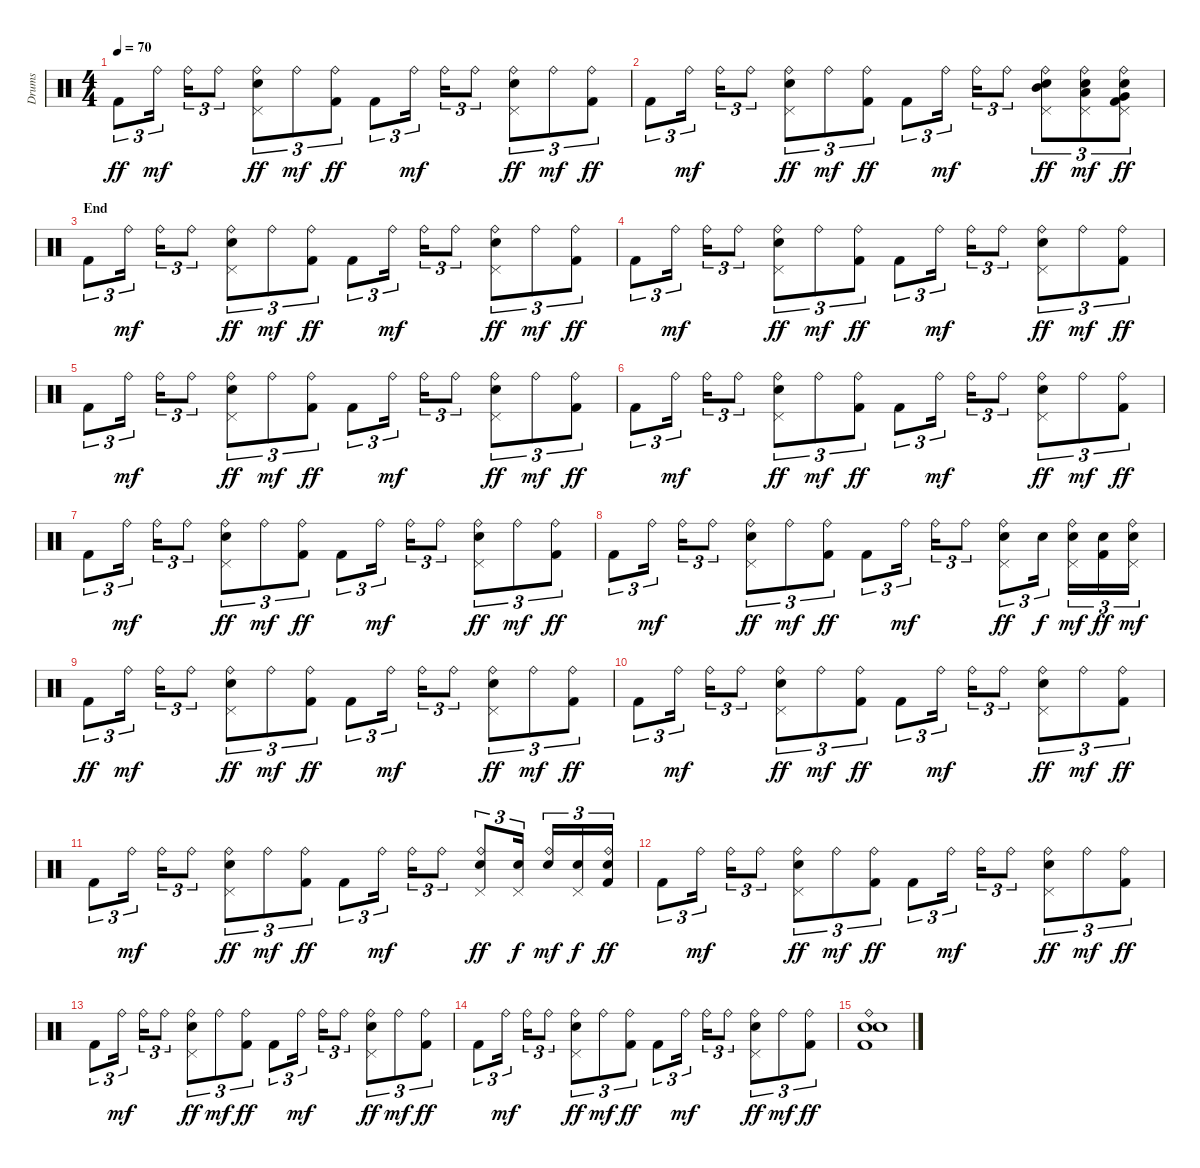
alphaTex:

\track ("Drums" "Drums") {instrument percussion}
\staff {score}
\articulation defaults
\ts (4 4)
\tempo 70
\clef neutral
\ks c "Kick (hit) 2".8{tu (3 2) dy ff} "Ride (bell)".16{tu (3 2) dy mf} "Ride (bell)".16{tu (3 2)} "Ride (bell)".8{tu (3 2)}
("Ride (bell)" "Pedal Hi-Hat (hit)" "Electric Snare (hit)").8{tu (3 2) dy ff} "Ride (bell)".8{tu (3 2) dy mf} ("Ride (bell)" "Kick (hit) 2").8{tu (3 2) dy ff} "Kick (hit) 2".8{tu (3 2)} "Ride (bell)".16{tu (3 2) dy mf} "Ride (bell)".16{tu (3 2)} "Ride (bell)".8{tu (3 2)} ("Ride (bell)" "Pedal Hi-Hat (hit)" "Electric Snare (hit)").8{tu (3 2) dy ff} "Ride (bell)".8{tu (3 2) dy mf} ("Ride (bell)" "Kick (hit) 2").8{tu (3 2) dy ff} |
"Kick (hit) 2".8{tu (3 2)} "Ride (bell)".16{tu (3 2) dy mf} "Ride (bell)".16{tu (3 2)} "Ride (bell)".8{tu (3 2)} ("Ride (bell)" "Pedal Hi-Hat (hit)" "Electric Snare (hit)").8{tu (3 2) dy ff} "Ride (bell)".8{tu (3 2) dy mf} ("Ride (bell)" "Kick (hit) 2").8{tu (3 2) dy ff} "Kick (hit) 2".8{tu (3 2)} "Ride (bell)".16{tu (3 2) dy mf} "Ride (bell)".16{tu (3 2)} "Ride (bell)".8{tu (3 2)} ("Ride (bell)" "Pedal Hi-Hat (hit)" "Mid Tom (hit)" "Electric Snare (hit)").8{tu (3 2) dy ff} ("Ride (bell)" "Pedal Hi-Hat (hit)" "Low Tom (hit)" "Electric Snare (hit)").8{tu (3 2) dy mf} ("Ride (bell)" "Pedal Hi-Hat (hit)" "Very Low Tom (hit)" "Electric Snare (hit)" "Kick (hit) 2").8{tu (3 2) dy ff} |
\section ("" "End")
"Kick (hit) 2".8{tu (3 2)} "Ride (bell)".16{tu (3 2) dy mf} "Ride (bell)".16{tu (3 2)} "Ride (bell)".8{tu (3 2)} ("Ride (bell)" "Pedal Hi-Hat (hit)" "Electric Snare (hit)").8{tu (3 2) dy ff} "Ride (bell)".8{tu (3 2) dy mf} ("Ride (bell)" "Kick (hit) 2").8{tu (3 2) dy ff} "Kick (hit) 2".8{tu (3 2)} "Ride (bell)".16{tu (3 2) dy mf} "Ride (bell)".16{tu (3 2)} "Ride (bell)".8{tu (3 2)} ("Ride (bell)" "Pedal Hi-Hat (hit)" "Electric Snare (hit)").8{tu (3 2) dy ff} "Ride (bell)".8{tu (3 2) dy mf} ("Ride (bell)" "Kick (hit) 2").8{tu (3 2) dy ff} |
"Kick (hit) 2".8{tu (3 2)} "Ride (bell)".16{tu (3 2) dy mf} "Ride (bell)".16{tu (3 2)} "Ride (bell)".8{tu (3 2)} ("Ride (bell)" "Pedal Hi-Hat (hit)" "Electric Snare (hit)").8{tu (3 2) dy ff} "Ride (bell)".8{tu (3 2) dy mf} ("Ride (bell)" "Kick (hit) 2").8{tu (3 2) dy ff} "Kick (hit) 2".8{tu (3 2)} "Ride (bell)".16{tu (3 2) dy mf} "Ride (bell)".16{tu (3 2)} "Ride (bell)".8{tu (3 2)} ("Ride (bell)" "Pedal Hi-Hat (hit)" "Electric Snare (hit)").8{tu (3 2) dy ff} "Ride (bell)".8{tu (3 2) dy mf} ("Ride (bell)" "Kick (hit) 2").8{tu (3 2) dy ff} |
"Kick (hit) 2".8{tu (3 2)} "Ride (bell)".16{tu (3 2) dy mf} "Ride (bell)".16{tu (3 2)} "Ride (bell)".8{tu (3 2)} ("Ride (bell)" "Pedal Hi-Hat (hit)" "Electric Snare (hit)").8{tu (3 2) dy ff} "Ride (bell)".8{tu (3 2) dy mf} ("Ride (bell)" "Kick (hit) 2").8{tu (3 2) dy ff} "Kick (hit) 2".8{tu (3 2)} "Ride (bell)".16{tu (3 2) dy mf} "Ride (bell)".16{tu (3 2)} "Ride (bell)".8{tu (3 2)} ("Ride (bell)" "Pedal Hi-Hat (hit)" "Electric Snare (hit)").8{tu (3 2) dy ff} "Ride (bell)".8{tu (3 2) dy mf} ("Ride (bell)" "Kick (hit) 2").8{tu (3 2) dy ff} |
"Kick (hit) 2".8{tu (3 2)} "Ride (bell)".16{tu (3 2) dy mf} "Ride (bell)".16{tu (3 2)} "Ride (bell)".8{tu (3 2)} ("Ride (bell)" "Pedal Hi-Hat (hit)" "Electric Snare (hit)").8{tu (3 2) dy ff} "Ride (bell)".8{tu (3 2) dy mf} ("Ride (bell)" "Kick (hit) 2").8{tu (3 2) dy ff} "Kick (hit) 2".8{tu (3 2)} "Ride (bell)".16{tu (3 2) dy mf} "Ride (bell)".16{tu (3 2)} "Ride (bell)".8{tu (3 2)} ("Ride (bell)" "Pedal Hi-Hat (hit)" "Electric Snare (hit)").8{tu (3 2) dy ff} "Ride (bell)".8{tu (3 2) dy mf} ("Ride (bell)" "Kick (hit) 2").8{tu (3 2) dy ff} |
"Kick (hit) 2".8{tu (3 2)} "Ride (bell)".16{tu (3 2) dy mf} "Ride (bell)".16{tu (3 2)} "Ride (bell)".8{tu (3 2)} ("Ride (bell)" "Pedal Hi-Hat (hit)" "Electric Snare (hit)").8{tu (3 2) dy ff} "Ride (bell)".8{tu (3 2) dy mf} ("Ride (bell)" "Kick (hit) 2").8{tu (3 2) dy ff} "Kick (hit) 2".8{tu (3 2)} "Ride (bell)".16{tu (3 2) dy mf} "Ride (bell)".16{tu (3 2)} "Ride (bell)".8{tu (3 2)} ("Ride (bell)" "Pedal Hi-Hat (hit)" "Electric Snare (hit)").8{tu (3 2) dy ff} "Ride (bell)".8{tu (3 2) dy mf} ("Ride (bell)" "Kick (hit) 2").8{tu (3 2) dy ff} |
"Kick (hit) 2".8{tu (3 2)} "Ride (bell)".16{tu (3 2) dy mf} "Ride (bell)".16{tu (3 2)} "Ride (bell)".8{tu (3 2)} ("Ride (bell)" "Pedal Hi-Hat (hit)" "Electric Snare (hit)").8{tu (3 2) dy ff} "Ride (bell)".8{tu (3 2) dy mf} ("Ride (bell)" "Kick (hit) 2").8{tu (3 2) dy ff} "Kick (hit) 2".8{tu (3 2)} "Ride (bell)".16{tu (3 2) dy mf} "Ride (bell)".16{tu (3 2)} "Ride (bell)".8{tu (3 2)} ("Ride (bell)" "Pedal Hi-Hat (hit)" "Electric Snare (hit)").8{tu (3 2) dy ff} "Electric Snare (hit)".16{tu (3 2) dy f} ("Ride (bell)" "Pedal Hi-Hat (hit)" "Electric Snare (hit)").16{tu (3 2) dy mf} ("Electric Snare (hit)" "Kick (hit) 2").16{tu (3 2) dy ff} ("Ride (bell)" "Pedal Hi-Hat (hit)" "Electric Snare (hit)").16{tu (3 2) dy mf} |
"Kick (hit) 2".8{tu (3 2) dy ff} "Ride (bell)".16{tu (3 2) dy mf} "Ride (bell)".16{tu (3 2)} "Ride (bell)".8{tu (3 2)} ("Ride (bell)" "Pedal Hi-Hat (hit)" "Electric Snare (hit)").8{tu (3 2) dy ff} "Ride (bell)".8{tu (3 2) dy mf} ("Ride (bell)" "Kick (hit) 2").8{tu (3 2) dy ff} "Kick (hit) 2".8{tu (3 2)} "Ride (bell)".16{tu (3 2) dy mf} "Ride (bell)".16{tu (3 2)} "Ride (bell)".8{tu (3 2)} ("Ride (bell)" "Pedal Hi-Hat (hit)" "Electric Snare (hit)").8{tu (3 2) dy ff} "Ride (bell)".8{tu (3 2) dy mf} ("Ride (bell)" "Kick (hit) 2").8{tu (3 2) dy ff} |
"Kick (hit) 2".8{tu (3 2)} "Ride (bell)".16{tu (3 2) dy mf} "Ride (bell)".16{tu (3 2)} "Ride (bell)".8{tu (3 2)} ("Ride (bell)" "Pedal Hi-Hat (hit)" "Electric Snare (hit)").8{tu (3 2) dy ff} "Ride (bell)".8{tu (3 2) dy mf} ("Ride (bell)" "Kick (hit) 2").8{tu (3 2) dy ff} "Kick (hit) 2".8{tu (3 2)} "Ride (bell)".16{tu (3 2) dy mf} "Ride (bell)".16{tu (3 2)} "Ride (bell)".8{tu (3 2)} ("Ride (bell)" "Pedal Hi-Hat (hit)" "Electric Snare (hit)").8{tu (3 2) dy ff} "Ride (bell)".8{tu (3 2) dy mf} ("Ride (bell)" "Kick (hit) 2").8{tu (3 2) dy ff} |
"Kick (hit) 2".8{tu (3 2)} "Ride (bell)".16{tu (3 2) dy mf} "Ride (bell)".16{tu (3 2)} "Ride (bell)".8{tu (3 2)} ("Ride (bell)" "Pedal Hi-Hat (hit)" "Electric Snare (hit)").8{tu (3 2) dy ff} "Ride (bell)".8{tu (3 2) dy mf} ("Ride (bell)" "Kick (hit) 2").8{tu (3 2) dy ff} "Kick (hit) 2".8{tu (3 2)} "Ride (bell)".16{tu (3 2) dy mf} "Ride (bell)".16{tu (3 2)} "Ride (bell)".8{tu (3 2)} ("Ride (bell)" "Pedal Hi-Hat (hit)" "Electric Snare (hit)").8{tu (3 2) dy ff} ("Pedal Hi-Hat (hit)" "Electric Snare (hit)").16{tu (3 2) dy f} ("Ride (bell)" "Electric Snare (hit)").16{tu (3 2) dy mf} ("Pedal Hi-Hat (hit)" "Electric Snare (hit)").16{tu (3 2) dy f} ("Ride (bell)" "Electric Snare (hit)" "Kick (hit) 2").16{tu (3 2) dy ff} |
"Kick (hit) 2".8{tu (3 2)} "Ride (bell)".16{tu (3 2) dy mf} "Ride (bell)".16{tu (3 2)} "Ride (bell)".8{tu (3 2)} ("Ride (bell)" "Pedal Hi-Hat (hit)" "Electric Snare (hit)").8{tu (3 2) dy ff} "Ride (bell)".8{tu (3 2) dy mf} ("Ride (bell)" "Kick (hit) 2").8{tu (3 2) dy ff} "Kick (hit) 2".8{tu (3 2)} "Ride (bell)".16{tu (3 2) dy mf} "Ride (bell)".16{tu (3 2)} "Ride (bell)".8{tu (3 2)} ("Ride (bell)" "Pedal Hi-Hat (hit)" "Electric Snare (hit)").8{tu (3 2) dy ff} "Ride (bell)".8{tu (3 2) dy mf} ("Ride (bell)" "Kick (hit) 2").8{tu (3 2) dy ff} |
"Kick (hit) 2".8{tu (3 2)} "Ride (bell)".16{tu (3 2) dy mf} "Ride (bell)".16{tu (3 2)} "Ride (bell)".8{tu (3 2)} ("Ride (bell)" "Pedal Hi-Hat (hit)" "Electric Snare (hit)").8{tu (3 2) dy ff} "Ride (bell)".8{tu (3 2) dy mf} ("Ride (bell)" "Kick (hit) 2").8{tu (3 2) dy ff} "Kick (hit) 2".8{tu (3 2)} "Ride (bell)".16{tu (3 2) dy mf} "Ride (bell)".16{tu (3 2)} "Ride (bell)".8{tu (3 2)} ("Ride (bell)" "Pedal Hi-Hat (hit)" "Electric Snare (hit)").8{tu (3 2) dy ff} "Ride (bell)".8{tu (3 2) dy mf} ("Ride (bell)" "Kick (hit) 2").8{tu (3 2) dy ff} |
"Kick (hit) 2".8{tu (3 2)} "Ride (bell)".16{tu (3 2) dy mf} "Ride (bell)".16{tu (3 2)} "Ride (bell)".8{tu (3 2)} ("Ride (bell)" "Pedal Hi-Hat (hit)" "Electric Snare (hit)").8{tu (3 2) dy ff} "Ride (bell)".8{tu (3 2) dy mf} ("Ride (bell)" "Kick (hit) 2").8{tu (3 2) dy ff} "Kick (hit) 2".8{tu (3 2)} "Ride (bell)".16{tu (3 2) dy mf} "Ride (bell)".16{tu (3 2)} "Ride (bell)".8{tu (3 2)} ("Ride (bell)" "Pedal Hi-Hat (hit)" "Electric Snare (hit)").8{tu (3 2) dy ff} "Ride (bell)".8{tu (3 2) dy mf} ("Ride (bell)" "Kick (hit) 2").8{tu (3 2) dy ff} |
("Ride (bell)" "Snare (hit) 2" "Electric Snare (hit)" "Kick (hit) 2").1
